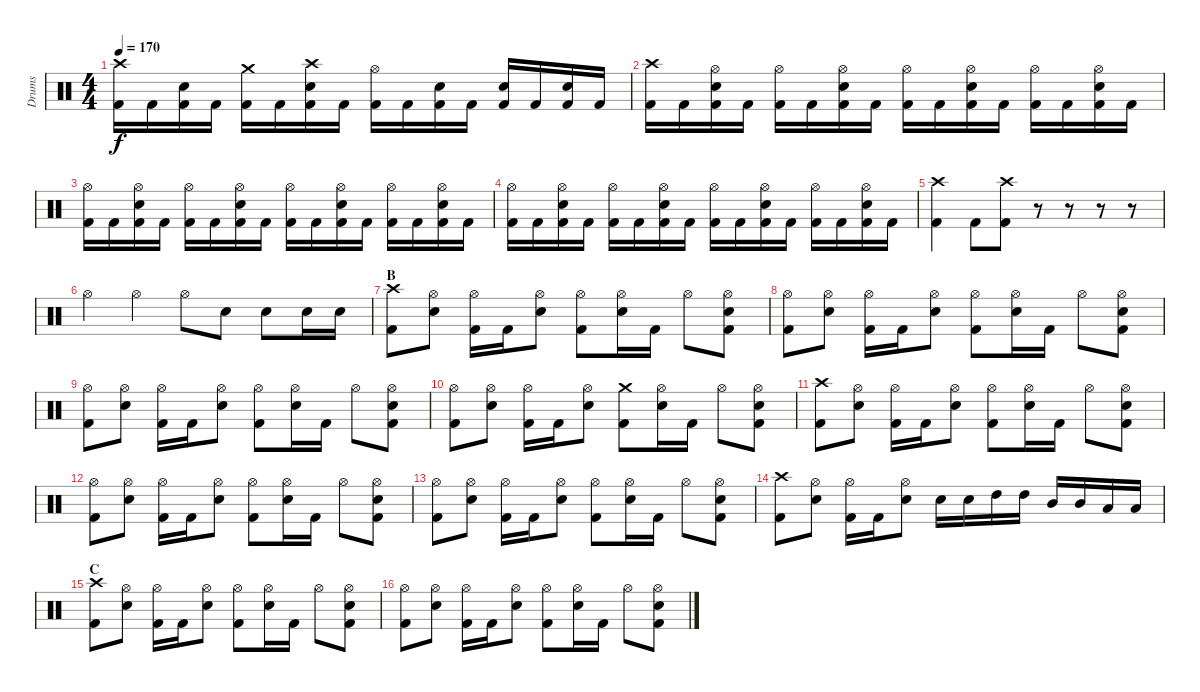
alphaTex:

\track ("Drums" "Drums") {instrument percussion}
\staff {score}
\articulation defaults
\ts (4 4)
\tempo 170
\clef neutral
\ks c
("Crash high (hit)" "Kick (hit) 2").16{dy f} "Kick (hit) 2".16 ("Electric Snare (hit)" "Kick (hit) 2").16 "Kick (hit) 2".16 ("Crash medium (hit)" "Kick (hit) 2").16 "Kick (hit) 2".16 ("Crash high (hit)" "Electric Snare (hit)" "Kick (hit) 2").16 "Kick (hit) 2".16 ("Hi-Hat (open)" "Kick (hit) 2").16 "Kick (hit) 2".16 ("Electric Snare (hit)" "Kick (hit) 2").16 "Kick (hit) 2".16 ("Electric Snare (hit)" "Kick (hit) 2").16 "Kick (hit) 2".16 ("Electric Snare (hit)" "Kick (hit) 2").16 "Kick (hit) 2".16 |
("Crash high (hit)" "Kick (hit) 2").16 "Kick (hit) 2".16 ("Hi-Hat (open)" "Electric Snare (hit)" "Kick (hit) 2").16 "Kick (hit) 2".16 ("Hi-Hat (open)" "Kick (hit) 2").16 "Kick (hit) 2".16 ("Hi-Hat (open)" "Electric Snare (hit)" "Kick (hit) 2").16 "Kick (hit) 2".16 ("Hi-Hat (open)" "Kick (hit) 2").16 "Kick (hit) 2".16 ("Hi-Hat (open)" "Electric Snare (hit)" "Kick (hit) 2").16 "Kick (hit) 2".16 ("Hi-Hat (open)" "Kick (hit) 2").16 "Kick (hit) 2".16 ("Hi-Hat (open)" "Electric Snare (hit)" "Kick (hit) 2").16 "Kick (hit) 2".16 |
("Hi-Hat (open)" "Kick (hit) 2").16 "Kick (hit) 2".16 ("Hi-Hat (open)" "Electric Snare (hit)" "Kick (hit) 2").16 "Kick (hit) 2".16 ("Hi-Hat (open)" "Kick (hit) 2").16 "Kick (hit) 2".16 ("Hi-Hat (open)" "Electric Snare (hit)" "Kick (hit) 2").16 "Kick (hit) 2".16 ("Hi-Hat (open)" "Kick (hit) 2").16 "Kick (hit) 2".16 ("Hi-Hat (open)" "Electric Snare (hit)" "Kick (hit) 2").16 "Kick (hit) 2".16 ("Hi-Hat (open)" "Kick (hit) 2").16 "Kick (hit) 2".16 ("Hi-Hat (open)" "Electric Snare (hit)" "Kick (hit) 2").16 "Kick (hit) 2".16 |
("Hi-Hat (open)" "Kick (hit) 2").16 "Kick (hit) 2".16 ("Hi-Hat (open)" "Electric Snare (hit)" "Kick (hit) 2").16 "Kick (hit) 2".16 ("Hi-Hat (open)" "Kick (hit) 2").16 "Kick (hit) 2".16 ("Hi-Hat (open)" "Electric Snare (hit)" "Kick (hit) 2").16 "Kick (hit) 2".16 ("Hi-Hat (open)" "Kick (hit) 2").16 "Kick (hit) 2".16 ("Hi-Hat (open)" "Electric Snare (hit)" "Kick (hit) 2").16 "Kick (hit) 2".16 ("Hi-Hat (open)" "Kick (hit) 2").16 "Kick (hit) 2".16 ("Hi-Hat (open)" "Electric Snare (hit)" "Kick (hit) 2").16 "Kick (hit) 2".16 |
("Crash high (hit)" "Kick (hit) 2").4 "Kick (hit) 2".8 ("Crash high (hit)" "Kick (hit) 2").8 r.8 r.8 r.8 r.8 |
"Hi-Hat (open)".4 "Hi-Hat (open)".4 "Hi-Hat (open)".8 "Electric Snare (hit)".8 "Electric Snare (hit)".8 "Electric Snare (hit)".16 "Electric Snare (hit)".16 |
\section ("" "B")
("Crash high (hit)" "Kick (hit) 2").8 ("Hi-Hat (open)" "Electric Snare (hit)").8 ("Hi-Hat (open)" "Kick (hit) 2").16 "Kick (hit) 2".16 ("Hi-Hat (open)" "Electric Snare (hit)").8 ("Hi-Hat (open)" "Kick (hit) 2").8 ("Hi-Hat (open)" "Electric Snare (hit)").16 "Kick (hit) 2".16 "Hi-Hat (open)".8 ("Hi-Hat (open)" "Electric Snare (hit)" "Kick (hit) 2").8 |
("Hi-Hat (open)" "Kick (hit) 2").8 ("Hi-Hat (open)" "Electric Snare (hit)").8 ("Hi-Hat (open)" "Kick (hit) 2").16 "Kick (hit) 2".16 ("Hi-Hat (open)" "Electric Snare (hit)").8 ("Hi-Hat (open)" "Kick (hit) 2").8 ("Hi-Hat (open)" "Electric Snare (hit)").16 "Kick (hit) 2".16 "Hi-Hat (open)".8 ("Hi-Hat (open)" "Electric Snare (hit)" "Kick (hit) 2").8 |
("Hi-Hat (open)" "Kick (hit) 2").8 ("Hi-Hat (open)" "Electric Snare (hit)").8 ("Hi-Hat (open)" "Kick (hit) 2").16 "Kick (hit) 2".16 ("Hi-Hat (open)" "Electric Snare (hit)").8 ("Hi-Hat (open)" "Kick (hit) 2").8 ("Hi-Hat (open)" "Electric Snare (hit)").16 "Kick (hit) 2".16 "Hi-Hat (open)".8 ("Hi-Hat (open)" "Electric Snare (hit)" "Kick (hit) 2").8 |
("Hi-Hat (open)" "Kick (hit) 2").8 ("Hi-Hat (open)" "Electric Snare (hit)").8 ("Hi-Hat (open)" "Kick (hit) 2").16 "Kick (hit) 2".16 ("Hi-Hat (open)" "Electric Snare (hit)").8 ("Crash medium (hit)" "Kick (hit) 2").8 ("Hi-Hat (open)" "Electric Snare (hit)").16 "Kick (hit) 2".16 "Hi-Hat (open)".8 ("Hi-Hat (open)" "Electric Snare (hit)" "Kick (hit) 2").8 |
("Crash high (hit)" "Kick (hit) 2").8 ("Hi-Hat (open)" "Electric Snare (hit)").8 ("Hi-Hat (open)" "Kick (hit) 2").16 "Kick (hit) 2".16 ("Hi-Hat (open)" "Electric Snare (hit)").8 ("Hi-Hat (open)" "Kick (hit) 2").8 ("Hi-Hat (open)" "Electric Snare (hit)").16 "Kick (hit) 2".16 "Hi-Hat (open)".8 ("Hi-Hat (open)" "Electric Snare (hit)" "Kick (hit) 2").8 |
("Hi-Hat (open)" "Kick (hit) 2").8 ("Hi-Hat (open)" "Electric Snare (hit)").8 ("Hi-Hat (open)" "Kick (hit) 2").16 "Kick (hit) 2".16 ("Hi-Hat (open)" "Electric Snare (hit)").8 ("Hi-Hat (open)" "Kick (hit) 2").8 ("Hi-Hat (open)" "Electric Snare (hit)").16 "Kick (hit) 2".16 "Hi-Hat (open)".8 ("Hi-Hat (open)" "Electric Snare (hit)" "Kick (hit) 2").8 |
("Hi-Hat (open)" "Kick (hit) 2").8 ("Hi-Hat (open)" "Electric Snare (hit)").8 ("Hi-Hat (open)" "Kick (hit) 2").16 "Kick (hit) 2".16 ("Hi-Hat (open)" "Electric Snare (hit)").8 ("Hi-Hat (open)" "Kick (hit) 2").8 ("Hi-Hat (open)" "Electric Snare (hit)").16 "Kick (hit) 2".16 "Hi-Hat (open)".8 ("Hi-Hat (open)" "Electric Snare (hit)" "Kick (hit) 2").8 |
("Crash high (hit)" "Kick (hit) 2").8 ("Hi-Hat (open)" "Electric Snare (hit)").8 ("Hi-Hat (open)" "Kick (hit) 2").16 "Kick (hit) 2".16 ("Hi-Hat (open)" "Electric Snare (hit)").8 "Electric Snare (hit)".16 "Electric Snare (hit)".16 "High Tom (hit)".16 "High Tom (hit)".16 "Mid Tom (hit)".16 "Mid Tom (hit)".16 "Low Tom (hit)".16 "Low Tom (hit)".16 |
\section ("" "C")
("Crash high (hit)" "Kick (hit) 2").8 ("Hi-Hat (open)" "Electric Snare (hit)").8 ("Hi-Hat (open)" "Kick (hit) 2").16 "Kick (hit) 2".16 ("Hi-Hat (open)" "Electric Snare (hit)").8 ("Hi-Hat (open)" "Kick (hit) 2").8 ("Hi-Hat (open)" "Electric Snare (hit)").16 "Kick (hit) 2".16 "Hi-Hat (open)".8 ("Hi-Hat (open)" "Electric Snare (hit)" "Kick (hit) 2").8 |
("Hi-Hat (open)" "Kick (hit) 2").8 ("Hi-Hat (open)" "Electric Snare (hit)").8 ("Hi-Hat (open)" "Kick (hit) 2").16 "Kick (hit) 2".16 ("Hi-Hat (open)" "Electric Snare (hit)").8 ("Hi-Hat (open)" "Kick (hit) 2").8 ("Hi-Hat (open)" "Electric Snare (hit)").16 "Kick (hit) 2".16 "Hi-Hat (open)".8 ("Hi-Hat (open)" "Electric Snare (hit)" "Kick (hit) 2").8
